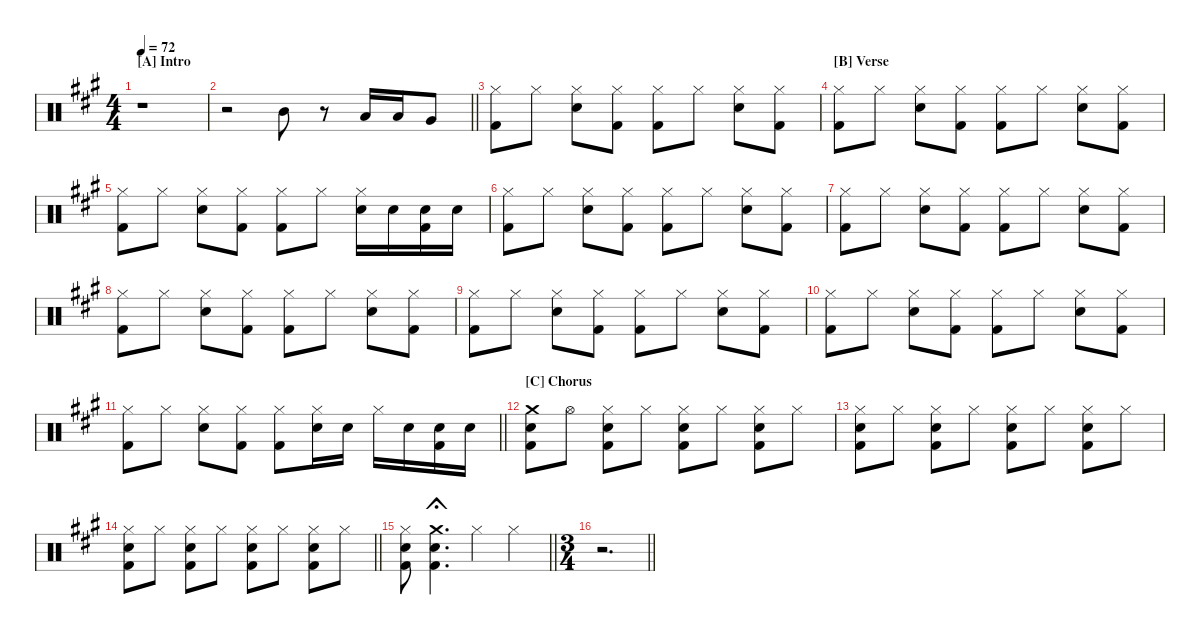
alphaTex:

\hideDynamics
\bracketExtendMode nobrackets
\singleTrackTrackNamePolicy hidden
\multiTrackTrackNamePolicy hidden
\otherSystemsTrackNameOrientation horizontal
\track ("Drumkit" "Drums") {defaultSystemsLayout 4 instrument percussion}
\staff {score}
\articulation defaults
\ts (4 4)
\beaming (8 2 2 2 2)
\section ("A" "Intro")
\tempo 72
\clef neutral
\scale
0.472222
\ks a
r.1{dy fff beam Down} |
\scale
0.263889
\barLineRight lightlight
r.2{beam Down} "Mid Tom (hit)"{acc forcenatural}.8{beam Down} r.8{beam Down} "Low Tom (hit)"{acc forcenatural}.16{beam Up} "Low Tom (hit)"{acc forcenatural}.16{beam Up} "Very Low Tom (hit)"{acc forcenatural}.8{beam Up} |
\scale
0.263889 ("Hi-Hat (closed)"{acc forcenatural} "Kick (hit) 2"{acc forcenatural}).8{dy mf beam Down} "Hi-Hat (closed)"{acc forcenatural}.8{beam Down} ("Hi-Hat (closed)"{acc forcenatural} "Snare (hit) 2"{acc forcenatural}).8{beam Down} ("Hi-Hat (closed)"{acc forcenatural} "Kick (hit) 2"{acc forcenatural}).8{beam Down} ("Hi-Hat (closed)"{acc forcenatural} "Kick (hit) 2"{acc forcenatural}).8{beam Down} "Hi-Hat (closed)"{acc forcenatural}.8{beam Down} ("Hi-Hat (closed)"{acc forcenatural} "Snare (hit) 2"{acc forcenatural}).8{beam Down} ("Hi-Hat (closed)"{acc forcenatural} "Kick (hit) 2"{acc forcenatural}).8{beam Down} |
\section ("B" "Verse")
("Hi-Hat (closed)"{acc forcenatural} "Kick (hit) 2"{acc forcenatural}).8{beam Down} "Hi-Hat (closed)"{acc forcenatural}.8{beam Down} ("Hi-Hat (closed)"{acc forcenatural} "Snare (hit) 2"{acc forcenatural}).8{beam Down} ("Hi-Hat (closed)"{acc forcenatural} "Kick (hit) 2"{acc forcenatural}).8{beam Down} ("Hi-Hat (closed)"{acc forcenatural} "Kick (hit) 2"{acc forcenatural}).8{beam Down} "Hi-Hat (closed)"{acc forcenatural}.8{beam Down} ("Hi-Hat (closed)"{acc forcenatural} "Snare (hit) 2"{acc forcenatural}).8{beam Down} ("Hi-Hat (closed)"{acc forcenatural} "Kick (hit) 2"{acc forcenatural}).8{beam Down} |
("Kick (hit) 2"{acc forcenatural} "Hi-Hat (closed)"{acc forcenatural}).8{beam Down} "Hi-Hat (closed)"{acc forcenatural}.8{beam Down} ("Snare (hit) 2"{acc forcenatural} "Hi-Hat (closed)"{acc forcenatural}).8{beam Down} ("Kick (hit) 2"{acc forcenatural} "Hi-Hat (closed)"{acc forcenatural}).8{beam Down} ("Kick (hit) 2"{acc forcenatural} "Hi-Hat (closed)"{acc forcenatural}).8{beam Down} "Hi-Hat (closed)"{acc forcenatural}.8{beam Down} ("Snare (hit) 2"{acc forcenatural} "Hi-Hat (closed)"{acc forcenatural}).16{beam Down} "Snare (hit) 2"{acc forcenatural}.16{beam Down} ("Snare (hit) 2"{acc forcenatural} "Kick (hit) 2"{acc forcenatural}).16{beam Down} "Snare (hit) 2"{acc forcenatural}.16{beam Down} |
("Hi-Hat (closed)"{acc forcenatural} "Kick (hit) 2"{acc forcenatural}).8{beam Down} "Hi-Hat (closed)"{acc forcenatural}.8{beam Down} ("Hi-Hat (closed)"{acc forcenatural} "Snare (hit) 2"{acc forcenatural}).8{beam Down} ("Hi-Hat (closed)"{acc forcenatural} "Kick (hit) 2"{acc forcenatural}).8{beam Down} ("Hi-Hat (closed)"{acc forcenatural} "Kick (hit) 2"{acc forcenatural}).8{beam Down} "Hi-Hat (closed)"{acc forcenatural}.8{beam Down} ("Hi-Hat (closed)"{acc forcenatural} "Snare (hit) 2"{acc forcenatural}).8{beam Down} ("Hi-Hat (closed)"{acc forcenatural} "Kick (hit) 2"{acc forcenatural}).8{beam Down} |
("Hi-Hat (closed)"{acc forcenatural} "Kick (hit) 2"{acc forcenatural}).8{beam Down} "Hi-Hat (closed)"{acc forcenatural}.8{beam Down} ("Hi-Hat (closed)"{acc forcenatural} "Snare (hit) 2"{acc forcenatural}).8{beam Down} ("Hi-Hat (closed)"{acc forcenatural} "Kick (hit) 2"{acc forcenatural}).8{beam Down} ("Hi-Hat (closed)"{acc forcenatural} "Kick (hit) 2"{acc forcenatural}).8{beam Down} "Hi-Hat (closed)"{acc forcenatural}.8{beam Down} ("Hi-Hat (closed)"{acc forcenatural} "Snare (hit) 2"{acc forcenatural}).8{beam Down} ("Hi-Hat (closed)"{acc forcenatural} "Kick (hit) 2"{acc forcenatural}).8{beam Down} |
("Hi-Hat (closed)"{acc forcenatural} "Kick (hit) 2"{acc forcenatural}).8{beam Down} "Hi-Hat (closed)"{acc forcenatural}.8{beam Down} ("Hi-Hat (closed)"{acc forcenatural} "Snare (hit) 2"{acc forcenatural}).8{beam Down} ("Hi-Hat (closed)"{acc forcenatural} "Kick (hit) 2"{acc forcenatural}).8{beam Down} ("Hi-Hat (closed)"{acc forcenatural} "Kick (hit) 2"{acc forcenatural}).8{beam Down} "Hi-Hat (closed)"{acc forcenatural}.8{beam Down} ("Hi-Hat (closed)"{acc forcenatural} "Snare (hit) 2"{acc forcenatural}).8{beam Down} ("Hi-Hat (closed)"{acc forcenatural} "Kick (hit) 2"{acc forcenatural}).8{beam Down} |
("Hi-Hat (closed)"{acc forcenatural} "Kick (hit) 2"{acc forcenatural}).8{beam Down} "Hi-Hat (closed)"{acc forcenatural}.8{beam Down} ("Hi-Hat (closed)"{acc forcenatural} "Snare (hit) 2"{acc forcenatural}).8{beam Down} ("Hi-Hat (closed)"{acc forcenatural} "Kick (hit) 2"{acc forcenatural}).8{beam Down} ("Hi-Hat (closed)"{acc forcenatural} "Kick (hit) 2"{acc forcenatural}).8{beam Down} "Hi-Hat (closed)"{acc forcenatural}.8{beam Down} ("Hi-Hat (closed)"{acc forcenatural} "Snare (hit) 2"{acc forcenatural}).8{beam Down} ("Hi-Hat (closed)"{acc forcenatural} "Kick (hit) 2"{acc forcenatural}).8{beam Down} |
("Hi-Hat (closed)"{acc forcenatural} "Kick (hit) 2"{acc forcenatural}).8{beam Down} "Hi-Hat (closed)"{acc forcenatural}.8{beam Down} ("Hi-Hat (closed)"{acc forcenatural} "Snare (hit) 2"{acc forcenatural}).8{beam Down} ("Hi-Hat (closed)"{acc forcenatural} "Kick (hit) 2"{acc forcenatural}).8{beam Down} ("Hi-Hat (closed)"{acc forcenatural} "Kick (hit) 2"{acc forcenatural}).8{beam Down} "Hi-Hat (closed)"{acc forcenatural}.8{beam Down} ("Hi-Hat (closed)"{acc forcenatural} "Snare (hit) 2"{acc forcenatural}).8{beam Down} ("Hi-Hat (closed)"{acc forcenatural} "Kick (hit) 2"{acc forcenatural}).8{beam Down} |
\barLineRight lightlight
("Kick (hit) 2"{acc forcenatural} "Hi-Hat (closed)"{acc forcenatural}).8{beam Down} "Hi-Hat (closed)"{acc forcenatural}.8{beam Down} ("Snare (hit) 2"{acc forcenatural} "Hi-Hat (closed)"{acc forcenatural}).8{beam Down} ("Kick (hit) 2"{acc forcenatural} "Hi-Hat (closed)"{acc forcenatural}).8{beam Down} ("Kick (hit) 2"{acc forcenatural} "Hi-Hat (closed)"{acc forcenatural}).8{beam Down} ("Snare (hit) 2"{acc forcenatural} "Hi-Hat (closed)"{acc forcenatural}).16{beam Down} "Snare (hit) 2"{acc forcenatural}.16{beam Down} "Hi-Hat (closed)"{acc forcenatural}.16{beam Down} "Snare (hit) 2"{acc forcenatural}.16{beam Down} ("Snare (hit) 2"{acc forcenatural} "Kick (hit) 2"{acc forcenatural}).16{beam Down} "Snare (hit) 2"{acc forcenatural}.16{beam Down} |
\section ("C" "Chorus")
("Snare (hit) 2"{acc forcenatural} "Crash medium (hit)"{acc forcenatural} "Kick (hit) 2"{acc forcenatural}).8{beam Down} "Hi-Hat (open)"{acc forcenatural}.8{beam Down} ("Kick (hit) 2"{acc forcenatural} "Hi-Hat (closed)"{acc forcenatural} "Snare (hit) 2"{acc forcenatural}).8{beam Down} "Hi-Hat (closed)"{acc forcenatural}.8{beam Down} ("Kick (hit) 2"{acc forcenatural} "Snare (hit) 2"{acc forcenatural} "Hi-Hat (closed)"{acc forcenatural}).8{beam Down} "Hi-Hat (closed)"{acc forcenatural}.8{beam Down} ("Kick (hit) 2"{acc forcenatural} "Snare (hit) 2"{acc forcenatural} "Hi-Hat (closed)"{acc forcenatural}).8{beam Down} "Hi-Hat (closed)"{acc forcenatural}.8{beam Down} |
("Hi-Hat (closed)"{acc forcenatural} "Snare (hit) 2"{acc forcenatural} "Kick (hit) 2"{acc forcenatural}).8{beam Down} "Hi-Hat (closed)"{acc forcenatural}.8{beam Down} ("Kick (hit) 2"{acc forcenatural} "Hi-Hat (closed)"{acc forcenatural} "Snare (hit) 2"{acc forcenatural}).8{beam Down} "Hi-Hat (closed)"{acc forcenatural}.8{beam Down} ("Kick (hit) 2"{acc forcenatural} "Snare (hit) 2"{acc forcenatural} "Hi-Hat (closed)"{acc forcenatural}).8{beam Down} "Hi-Hat (closed)"{acc forcenatural}.8{beam Down} ("Kick (hit) 2"{acc forcenatural} "Snare (hit) 2"{acc forcenatural} "Hi-Hat (closed)"{acc forcenatural}).8{beam Down} "Hi-Hat (closed)"{acc forcenatural}.8{beam Down} |
\barLineRight lightlight
("Hi-Hat (closed)"{acc forcenatural} "Snare (hit) 2"{acc forcenatural} "Kick (hit) 2"{acc forcenatural}).8{beam Down} "Hi-Hat (closed)"{acc forcenatural}.8{beam Down} ("Kick (hit) 2"{acc forcenatural} "Hi-Hat (closed)"{acc forcenatural} "Snare (hit) 2"{acc forcenatural}).8{beam Down} "Hi-Hat (closed)"{acc forcenatural}.8{beam Down} ("Kick (hit) 2"{acc forcenatural} "Snare (hit) 2"{acc forcenatural} "Hi-Hat (closed)"{acc forcenatural}).8{beam Down} "Hi-Hat (closed)"{acc forcenatural}.8{beam Down} ("Kick (hit) 2"{acc forcenatural} "Snare (hit) 2"{acc forcenatural} "Hi-Hat (closed)"{acc forcenatural}).8{beam Down} "Hi-Hat (closed)"{acc forcenatural}.8{beam Down} |
\barLineRight lightlight
("Hi-Hat (closed)"{acc forcenatural} "Snare (hit) 2"{acc forcenatural} "Kick (hit) 2"{acc forcenatural}).8{beam Down} ("Snare (hit) 2"{acc forcenatural} "Kick (hit) 2"{acc forcenatural} "Crash medium (hit)"{acc forcenatural}).4{d fermata (short 0) beam Down} "Hi-Hat (closed)"{acc forcenatural}.4{beam Down} "Hi-Hat (closed)"{acc forcenatural}.4{beam Down} |
\ts (3 4)
\beaming (8 2 2 2)
\barLineRight lightlight
r.2{d beam Down}
